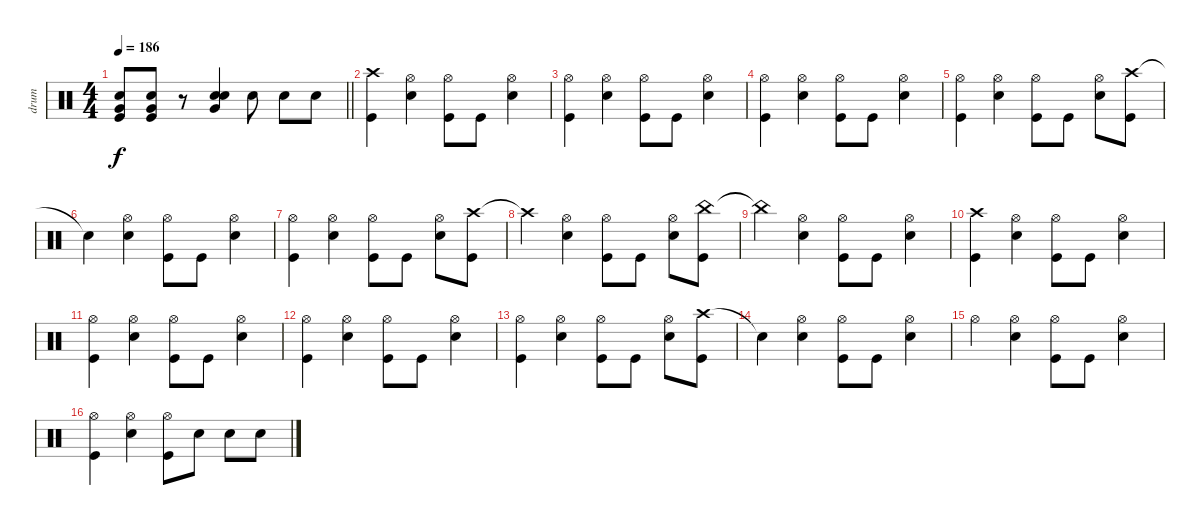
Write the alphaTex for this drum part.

\track ("drum" "drum") {instrument percussion}
\staff {score}
\articulation defaults
\ts (4 4)
\tempo 186
\clef neutral
\barLineRight lightlight
\ks c
("Snare (hit) 2" "Very Low Tom (hit)" "Kick (hit)").8{dy f} ("Snare (hit) 2" "Very Low Tom (hit)" "Kick (hit)").8 r.8 ("Snare (hit) 2" "Very Low Tom (hit)" "Snare (hit)").4 "Snare (hit) 2".8 "Snare (hit) 2".8 "Snare (hit) 2".8 |
("Crash high (hit)" "Kick (hit)").4 ("Hi-Hat (open)" "Snare (hit) 2").4 ("Hi-Hat (open)" "Kick (hit)").8 "Kick (hit)".8 ("Hi-Hat (open)" "Snare (hit) 2").4 |
("Hi-Hat (open)" "Kick (hit)").4 ("Hi-Hat (open)" "Snare (hit) 2").4 ("Hi-Hat (open)" "Kick (hit)").8 "Kick (hit)".8 ("Hi-Hat (open)" "Snare (hit) 2").4 |
("Hi-Hat (open)" "Kick (hit)").4 ("Hi-Hat (open)" "Snare (hit) 2").4 ("Hi-Hat (open)" "Kick (hit)").8 "Kick (hit)".8 ("Hi-Hat (open)" "Snare (hit) 2").4 |
("Hi-Hat (open)" "Kick (hit)").4 ("Hi-Hat (open)" "Snare (hit) 2").4 ("Hi-Hat (open)" "Kick (hit)").8 "Kick (hit)".8 ("Hi-Hat (open)" "Snare (hit) 2").8 ("Crash high (hit)" "Kick (hit)").8 |
"Snare (hit)"{t}.4 ("Hi-Hat (open)" "Snare (hit) 2").4 ("Hi-Hat (open)" "Kick (hit)").8 "Kick (hit)".8 ("Hi-Hat (open)" "Snare (hit) 2").4 |
("Hi-Hat (open)" "Kick (hit)").4 ("Hi-Hat (open)" "Snare (hit) 2").4 ("Hi-Hat (open)" "Kick (hit)").8 "Kick (hit)".8 ("Hi-Hat (open)" "Snare (hit) 2").8 ("Crash high (hit)" "Kick (hit)").8 |
"Crash high (hit)"{t}.4 ("Hi-Hat (open)" "Snare (hit) 2").4 ("Hi-Hat (open)" "Kick (hit)").8 "Kick (hit)".8 ("Hi-Hat (open)" "Snare (hit) 2").8 ("China (hit)" "Kick (hit)").8 |
"China (hit)"{t}.4 ("Hi-Hat (open)" "Snare (hit) 2").4 ("Hi-Hat (open)" "Kick (hit)").8 "Kick (hit)".8 ("Hi-Hat (open)" "Snare (hit) 2").4 |
("Crash high (hit)" "Kick (hit)").4 ("Hi-Hat (open)" "Snare (hit) 2").4 ("Hi-Hat (open)" "Kick (hit)").8 "Kick (hit)".8 ("Hi-Hat (open)" "Snare (hit) 2").4 |
("Hi-Hat (open)" "Kick (hit)").4 ("Hi-Hat (open)" "Snare (hit) 2").4 ("Hi-Hat (open)" "Kick (hit)").8 "Kick (hit)".8 ("Hi-Hat (open)" "Snare (hit) 2").4 |
("Hi-Hat (open)" "Kick (hit)").4 ("Hi-Hat (open)" "Snare (hit) 2").4 ("Hi-Hat (open)" "Kick (hit)").8 "Kick (hit)".8 ("Hi-Hat (open)" "Snare (hit) 2").4 |
("Hi-Hat (open)" "Kick (hit)").4 ("Hi-Hat (open)" "Snare (hit) 2").4 ("Hi-Hat (open)" "Kick (hit)").8 "Kick (hit)".8 ("Hi-Hat (open)" "Snare (hit) 2").8 ("Crash high (hit)" "Kick (hit)").8 |
"Snare (hit)"{t}.4 ("Hi-Hat (open)" "Snare (hit) 2").4 ("Hi-Hat (open)" "Kick (hit)").8 "Kick (hit)".8 ("Hi-Hat (open)" "Snare (hit) 2").4 |
"Hi-Hat (open)".4 ("Hi-Hat (open)" "Snare (hit) 2").4 ("Hi-Hat (open)" "Kick (hit)").8 "Kick (hit)".8 ("Hi-Hat (open)" "Snare (hit) 2").4 |
("Hi-Hat (open)" "Kick (hit)").4 ("Hi-Hat (open)" "Snare (hit) 2").4 ("Hi-Hat (open)" "Kick (hit)").8 "Snare (hit) 2".8 "Snare (hit) 2".8 "Snare (hit) 2".8
